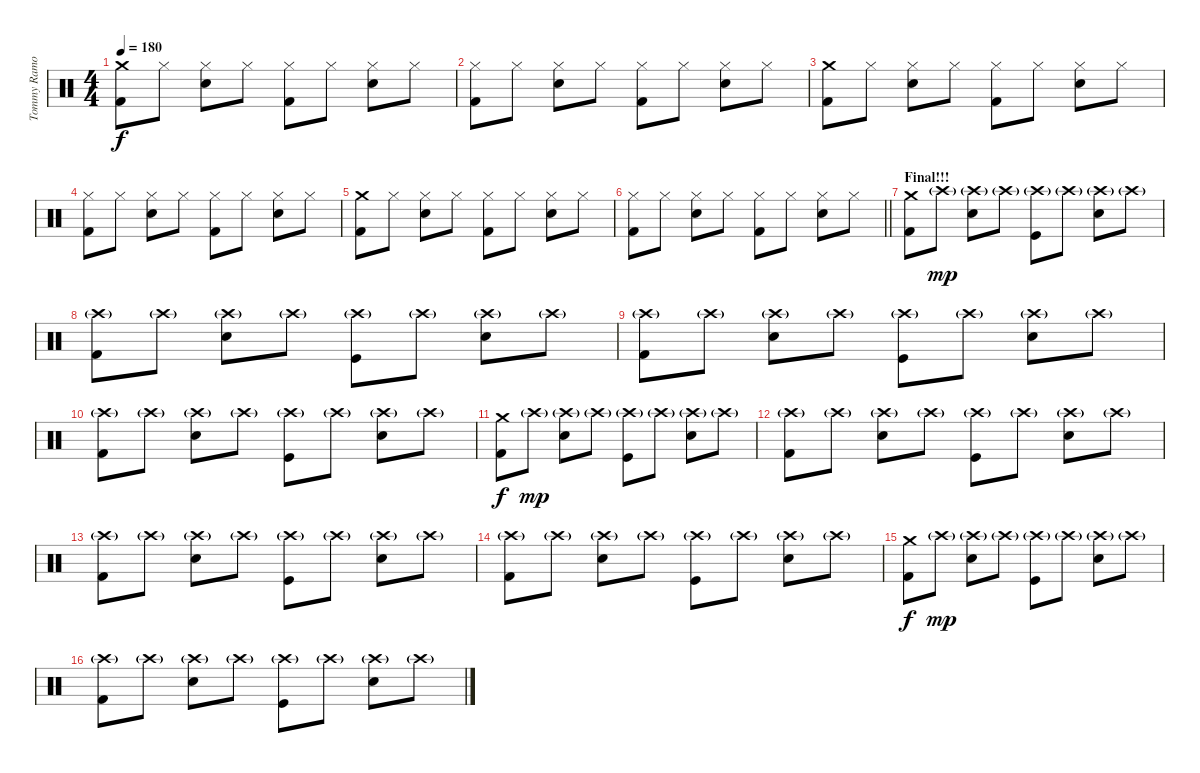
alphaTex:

\track ("Tommy Ramone" "Tommy Ramo") {instrument percussion}
\staff {score}
\articulation defaults
\ts (4 4)
\tempo 180
\clef neutral
\ks c
("Crash medium (hit)" "Kick (hit) 2").8{dy f} "Hi-Hat (closed)".8 ("Hi-Hat (closed)" "Snare (hit) 2").8 "Hi-Hat (closed)".8 ("Hi-Hat (closed)" "Kick (hit) 2").8 "Hi-Hat (closed)".8 ("Hi-Hat (closed)" "Snare (hit) 2").8 "Hi-Hat (closed)".8 |
("Hi-Hat (closed)" "Kick (hit) 2").8 "Hi-Hat (closed)".8 ("Hi-Hat (closed)" "Snare (hit) 2").8 "Hi-Hat (closed)".8 ("Hi-Hat (closed)" "Kick (hit) 2").8 "Hi-Hat (closed)".8 ("Hi-Hat (closed)" "Snare (hit) 2").8 "Hi-Hat (closed)".8 |
("Crash medium (hit)" "Kick (hit) 2").8 "Hi-Hat (closed)".8 ("Hi-Hat (closed)" "Snare (hit) 2").8 "Hi-Hat (closed)".8 ("Hi-Hat (closed)" "Kick (hit) 2").8 "Hi-Hat (closed)".8 ("Hi-Hat (closed)" "Snare (hit) 2").8 "Hi-Hat (closed)".8 |
("Hi-Hat (closed)" "Kick (hit) 2").8 "Hi-Hat (closed)".8 ("Hi-Hat (closed)" "Snare (hit) 2").8 "Hi-Hat (closed)".8 ("Hi-Hat (closed)" "Kick (hit) 2").8 "Hi-Hat (closed)".8 ("Hi-Hat (closed)" "Snare (hit) 2").8 "Hi-Hat (closed)".8 |
("Crash medium (hit)" "Kick (hit) 2").8 "Hi-Hat (closed)".8 ("Hi-Hat (closed)" "Snare (hit) 2").8 "Hi-Hat (closed)".8 ("Hi-Hat (closed)" "Kick (hit) 2").8 "Hi-Hat (closed)".8 ("Hi-Hat (closed)" "Snare (hit) 2").8 "Hi-Hat (closed)".8 |
\barLineRight lightlight
("Hi-Hat (closed)" "Kick (hit) 2").8 "Hi-Hat (closed)".8 ("Hi-Hat (closed)" "Snare (hit) 2").8 "Hi-Hat (closed)".8 ("Hi-Hat (closed)" "Kick (hit) 2").8 "Hi-Hat (closed)".8 ("Hi-Hat (closed)" "Snare (hit) 2").8 "Hi-Hat (closed)".8 |
\section ("" "Final!!!")
("Crash medium (hit)" "Kick (hit) 2").8 "Crash high (hit)"{g}.8{dy mp} ("Crash high (hit)"{g} "Snare (hit) 2").8 "Crash high (hit)"{g}.8 ("Crash high (hit)"{g} "Kick (hit)").8 "Crash high (hit)"{g}.8 ("Crash high (hit)"{g} "Snare (hit) 2").8 "Crash high (hit)"{g}.8 |
("Crash high (hit)"{g} "Kick (hit) 2").8 "Crash high (hit)"{g}.8 ("Crash high (hit)"{g} "Snare (hit) 2").8 "Crash high (hit)"{g}.8 ("Crash high (hit)"{g} "Kick (hit)").8 "Crash high (hit)"{g}.8 ("Crash high (hit)"{g} "Snare (hit) 2").8 "Crash high (hit)"{g}.8 |
("Crash high (hit)"{g} "Kick (hit) 2").8 "Crash high (hit)"{g}.8 ("Crash high (hit)"{g} "Snare (hit) 2").8 "Crash high (hit)"{g}.8 ("Crash high (hit)"{g} "Kick (hit)").8 "Crash high (hit)"{g}.8 ("Crash high (hit)"{g} "Snare (hit) 2").8 "Crash high (hit)"{g}.8 |
("Crash high (hit)"{g} "Kick (hit) 2").8 "Crash high (hit)"{g}.8 ("Crash high (hit)"{g} "Snare (hit) 2").8 "Crash high (hit)"{g}.8 ("Crash high (hit)"{g} "Kick (hit)").8 "Crash high (hit)"{g}.8 ("Crash high (hit)"{g} "Snare (hit) 2").8 "Crash high (hit)"{g}.8 |
("Crash medium (hit)" "Kick (hit) 2").8{dy f} "Crash high (hit)"{g}.8{dy mp} ("Crash high (hit)"{g} "Snare (hit) 2").8 "Crash high (hit)"{g}.8 ("Crash high (hit)"{g} "Kick (hit)").8 "Crash high (hit)"{g}.8 ("Crash high (hit)"{g} "Snare (hit) 2").8 "Crash high (hit)"{g}.8 |
("Crash high (hit)"{g} "Kick (hit) 2").8 "Crash high (hit)"{g}.8 ("Crash high (hit)"{g} "Snare (hit) 2").8 "Crash high (hit)"{g}.8 ("Crash high (hit)"{g} "Kick (hit)").8 "Crash high (hit)"{g}.8 ("Crash high (hit)"{g} "Snare (hit) 2").8 "Crash high (hit)"{g}.8 |
("Crash high (hit)"{g} "Kick (hit) 2").8 "Crash high (hit)"{g}.8 ("Crash high (hit)"{g} "Snare (hit) 2").8 "Crash high (hit)"{g}.8 ("Crash high (hit)"{g} "Kick (hit)").8 "Crash high (hit)"{g}.8 ("Crash high (hit)"{g} "Snare (hit) 2").8 "Crash high (hit)"{g}.8 |
("Crash high (hit)"{g} "Kick (hit) 2").8 "Crash high (hit)"{g}.8 ("Crash high (hit)"{g} "Snare (hit) 2").8 "Crash high (hit)"{g}.8 ("Crash high (hit)"{g} "Kick (hit)").8 "Crash high (hit)"{g}.8 ("Crash high (hit)"{g} "Snare (hit) 2").8 "Crash high (hit)"{g}.8 |
("Crash medium (hit)" "Kick (hit) 2").8{dy f} "Crash high (hit)"{g}.8{dy mp} ("Crash high (hit)"{g} "Snare (hit) 2").8 "Crash high (hit)"{g}.8 ("Crash high (hit)"{g} "Kick (hit)").8 "Crash high (hit)"{g}.8 ("Crash high (hit)"{g} "Snare (hit) 2").8 "Crash high (hit)"{g}.8 |
("Crash high (hit)"{g} "Kick (hit) 2").8 "Crash high (hit)"{g}.8 ("Crash high (hit)"{g} "Snare (hit) 2").8 "Crash high (hit)"{g}.8 ("Crash high (hit)"{g} "Kick (hit)").8 "Crash high (hit)"{g}.8 ("Crash high (hit)"{g} "Snare (hit) 2").8 "Crash high (hit)"{g}.8
